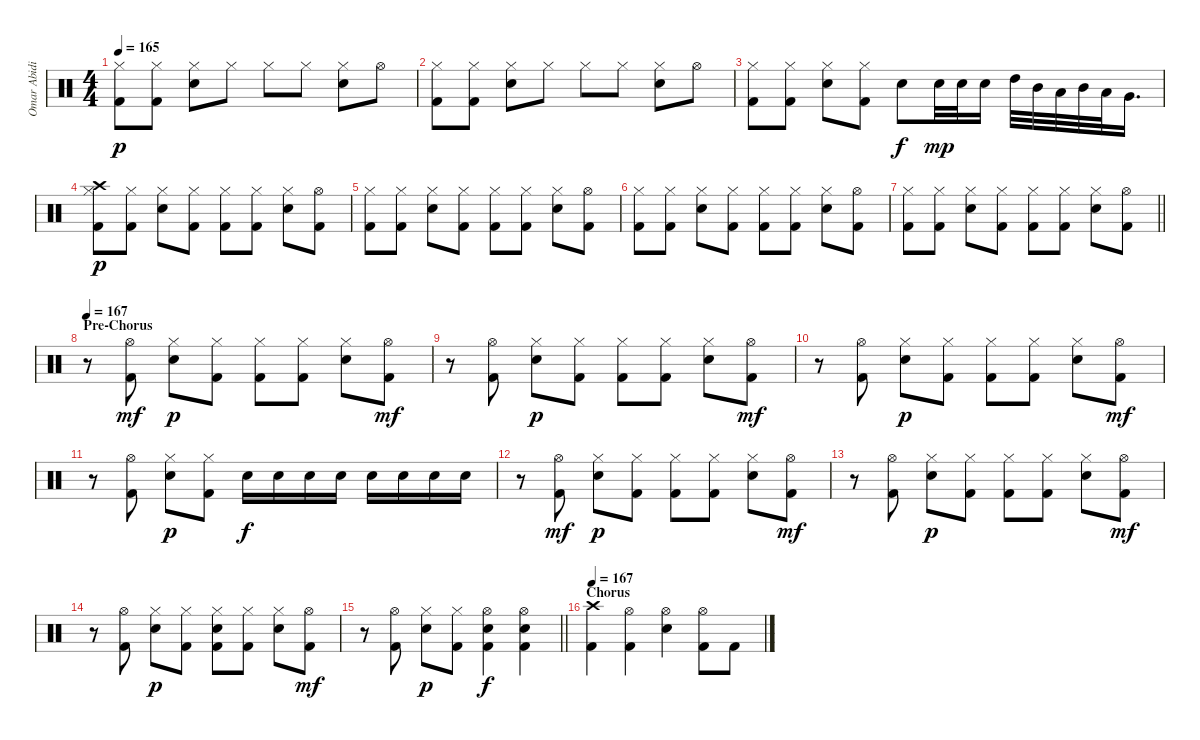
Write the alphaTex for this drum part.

\track ("Omar Abidi" "Omar Abidi") {instrument percussion}
\staff {score}
\articulation defaults
\ts (4 4)
\tempo 165
\clef neutral
\ks c
("Hi-Hat (closed)" "Kick (hit) 2").8{dy p} ("Hi-Hat (closed)" "Kick (hit) 2").8 ("Hi-Hat (closed)" "Electric Snare (hit)").8 "Hi-Hat (closed)".8 "Hi-Hat (closed)".8 "Hi-Hat (closed)".8 ("Hi-Hat (closed)" "Electric Snare (hit)").8 "Hi-Hat (open)".8 |
("Hi-Hat (closed)" "Kick (hit) 2").8 ("Hi-Hat (closed)" "Kick (hit) 2").8 ("Hi-Hat (closed)" "Electric Snare (hit)").8 "Hi-Hat (closed)".8 "Hi-Hat (closed)".8 "Hi-Hat (closed)".8 ("Hi-Hat (closed)" "Electric Snare (hit)").8 "Hi-Hat (open)".8 |
("Hi-Hat (closed)" "Kick (hit) 2").8 ("Hi-Hat (closed)" "Kick (hit) 2").8 ("Hi-Hat (closed)" "Electric Snare (hit)").8 ("Hi-Hat (closed)" "Kick (hit) 2").8 "Electric Snare (hit)".8{dy f} "Electric Snare (hit)".32{dy mp} "Electric Snare (hit)".32 "Electric Snare (hit)".16 "High Tom (hit)".32 "Mid Tom (hit)".32 "Low Tom (hit)".32 "Mid Tom (hit)".32 "Low Tom (hit)".32 "Very Low Tom (hit)".16{d} |
("Crash high (hit)" "Hi-Hat (closed)" "Kick (hit) 2").8{dy p} ("Hi-Hat (closed)" "Kick (hit) 2").8 ("Hi-Hat (closed)" "Electric Snare (hit)").8 ("Hi-Hat (closed)" "Kick (hit) 2").8 ("Hi-Hat (closed)" "Kick (hit) 2").8 ("Hi-Hat (closed)" "Kick (hit) 2").8 ("Hi-Hat (closed)" "Electric Snare (hit)").8 ("Hi-Hat (open)" "Kick (hit) 2").8 |
("Hi-Hat (closed)" "Kick (hit) 2").8 ("Hi-Hat (closed)" "Kick (hit) 2").8 ("Hi-Hat (closed)" "Electric Snare (hit)").8 ("Hi-Hat (closed)" "Kick (hit) 2").8 ("Hi-Hat (closed)" "Kick (hit) 2").8 ("Hi-Hat (closed)" "Kick (hit) 2").8 ("Hi-Hat (closed)" "Electric Snare (hit)").8 ("Hi-Hat (open)" "Kick (hit) 2").8 |
("Hi-Hat (closed)" "Kick (hit) 2").8 ("Hi-Hat (closed)" "Kick (hit) 2").8 ("Hi-Hat (closed)" "Electric Snare (hit)").8 ("Hi-Hat (closed)" "Kick (hit) 2").8 ("Hi-Hat (closed)" "Kick (hit) 2").8 ("Hi-Hat (closed)" "Kick (hit) 2").8 ("Hi-Hat (closed)" "Electric Snare (hit)").8 ("Hi-Hat (open)" "Kick (hit) 2").8 |
\barLineRight lightlight
("Hi-Hat (closed)" "Kick (hit) 2").8 ("Hi-Hat (closed)" "Kick (hit) 2").8 ("Hi-Hat (closed)" "Electric Snare (hit)").8 ("Hi-Hat (closed)" "Kick (hit) 2").8 ("Hi-Hat (closed)" "Kick (hit) 2").8 ("Hi-Hat (closed)" "Kick (hit) 2").8 ("Hi-Hat (closed)" "Electric Snare (hit)").8 ("Hi-Hat (open)" "Kick (hit) 2").8 |
\section ("" "Pre-Chorus")
\tempo 167
r.8 ("Hi-Hat (open)" "Kick (hit) 2").8{dy mf} ("Hi-Hat (closed)" "Electric Snare (hit)").8{dy p} ("Hi-Hat (closed)" "Kick (hit) 2").8 ("Hi-Hat (closed)" "Kick (hit) 2").8 ("Hi-Hat (closed)" "Kick (hit) 2").8 ("Hi-Hat (closed)" "Electric Snare (hit)").8 ("Hi-Hat (open)" "Kick (hit) 2").8{dy mf} |
r.8 ("Hi-Hat (open)" "Kick (hit) 2").8 ("Hi-Hat (closed)" "Electric Snare (hit)").8{dy p} ("Hi-Hat (closed)" "Kick (hit) 2").8 ("Hi-Hat (closed)" "Kick (hit) 2").8 ("Hi-Hat (closed)" "Kick (hit) 2").8 ("Hi-Hat (closed)" "Electric Snare (hit)").8 ("Hi-Hat (open)" "Kick (hit) 2").8{dy mf} |
r.8 ("Hi-Hat (open)" "Kick (hit) 2").8 ("Hi-Hat (closed)" "Electric Snare (hit)").8{dy p} ("Hi-Hat (closed)" "Kick (hit) 2").8 ("Hi-Hat (closed)" "Kick (hit) 2").8 ("Hi-Hat (closed)" "Kick (hit) 2").8 ("Hi-Hat (closed)" "Electric Snare (hit)").8 ("Hi-Hat (open)" "Kick (hit) 2").8{dy mf} |
r.8 ("Hi-Hat (open)" "Kick (hit) 2").8 ("Hi-Hat (closed)" "Electric Snare (hit)").8{dy p} ("Hi-Hat (closed)" "Kick (hit) 2").8 "Electric Snare (hit)".16{dy f} "Electric Snare (hit)".16 "Electric Snare (hit)".16 "Electric Snare (hit)".16 "Electric Snare (hit)".16 "Electric Snare (hit)".16 "Electric Snare (hit)".16 "Electric Snare (hit)".16 |
r.8 ("Hi-Hat (open)" "Kick (hit) 2").8{dy mf} ("Hi-Hat (closed)" "Electric Snare (hit)").8{dy p} ("Hi-Hat (closed)" "Kick (hit) 2").8 ("Hi-Hat (closed)" "Kick (hit) 2").8 ("Hi-Hat (closed)" "Kick (hit) 2").8 ("Hi-Hat (closed)" "Electric Snare (hit)").8 ("Hi-Hat (open)" "Kick (hit) 2").8{dy mf} |
r.8 ("Hi-Hat (open)" "Kick (hit) 2").8 ("Hi-Hat (closed)" "Electric Snare (hit)").8{dy p} ("Hi-Hat (closed)" "Kick (hit) 2").8 ("Hi-Hat (closed)" "Kick (hit) 2").8 ("Hi-Hat (closed)" "Kick (hit) 2").8 ("Hi-Hat (closed)" "Electric Snare (hit)").8 ("Hi-Hat (open)" "Kick (hit) 2").8{dy mf} |
r.8 ("Hi-Hat (open)" "Kick (hit) 2").8 ("Hi-Hat (closed)" "Electric Snare (hit)").8{dy p} ("Hi-Hat (closed)" "Kick (hit) 2").8 ("Hi-Hat (closed)" "Electric Snare (hit)" "Kick (hit) 2").8 ("Hi-Hat (closed)" "Kick (hit) 2").8 ("Hi-Hat (closed)" "Electric Snare (hit)").8 ("Hi-Hat (open)" "Kick (hit) 2").8{dy mf} |
\barLineRight lightlight
r.8 ("Hi-Hat (open)" "Kick (hit) 2").8 ("Hi-Hat (closed)" "Electric Snare (hit)").8{dy p} ("Hi-Hat (closed)" "Kick (hit) 2").8 ("Hi-Hat (open)" "Electric Snare (hit)" "Kick (hit) 2").4{dy f} ("Hi-Hat (open)" "Electric Snare (hit)" "Kick (hit) 2").4 |
\section ("" "Chorus")
\tempo 167
("Crash high (hit)" "Kick (hit) 2").4 ("Hi-Hat (open)" "Kick (hit) 2").4 ("Hi-Hat (open)" "Electric Snare (hit)").4 ("Hi-Hat (open)" "Kick (hit) 2").8 "Kick (hit) 2".8
